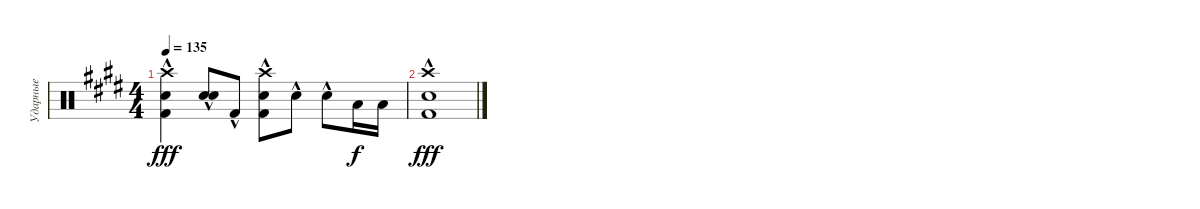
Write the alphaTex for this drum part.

\track ("Ударные" "Ударные") {instrument percussion}
\staff {score}
\articulation defaults
\ts (4 4)
\tempo 135
\clef neutral
\ks c#minor
("Crash high (hit)" "Electric Snare (hit)" "Kick (hit) 2"{hac}).4{dy fff} ("Snare (hit) 2"{hac} "Electric Snare (hit)"{hac}).8 "Kick (hit) 2"{hac}.8 ("Electric Snare (hit)" "Crash high (hit)" "Kick (hit) 2"{hac}).8 "Electric Snare (hit)"{hac}.8 "Electric Snare (hit)"{hac}.8 "Low Floor Tom (hit)".16{dy f} "Low Floor Tom (hit)".16 |
("Crash high (hit)" "Electric Snare (hit)" "Kick (hit) 2"{hac}).1{dy fff}
